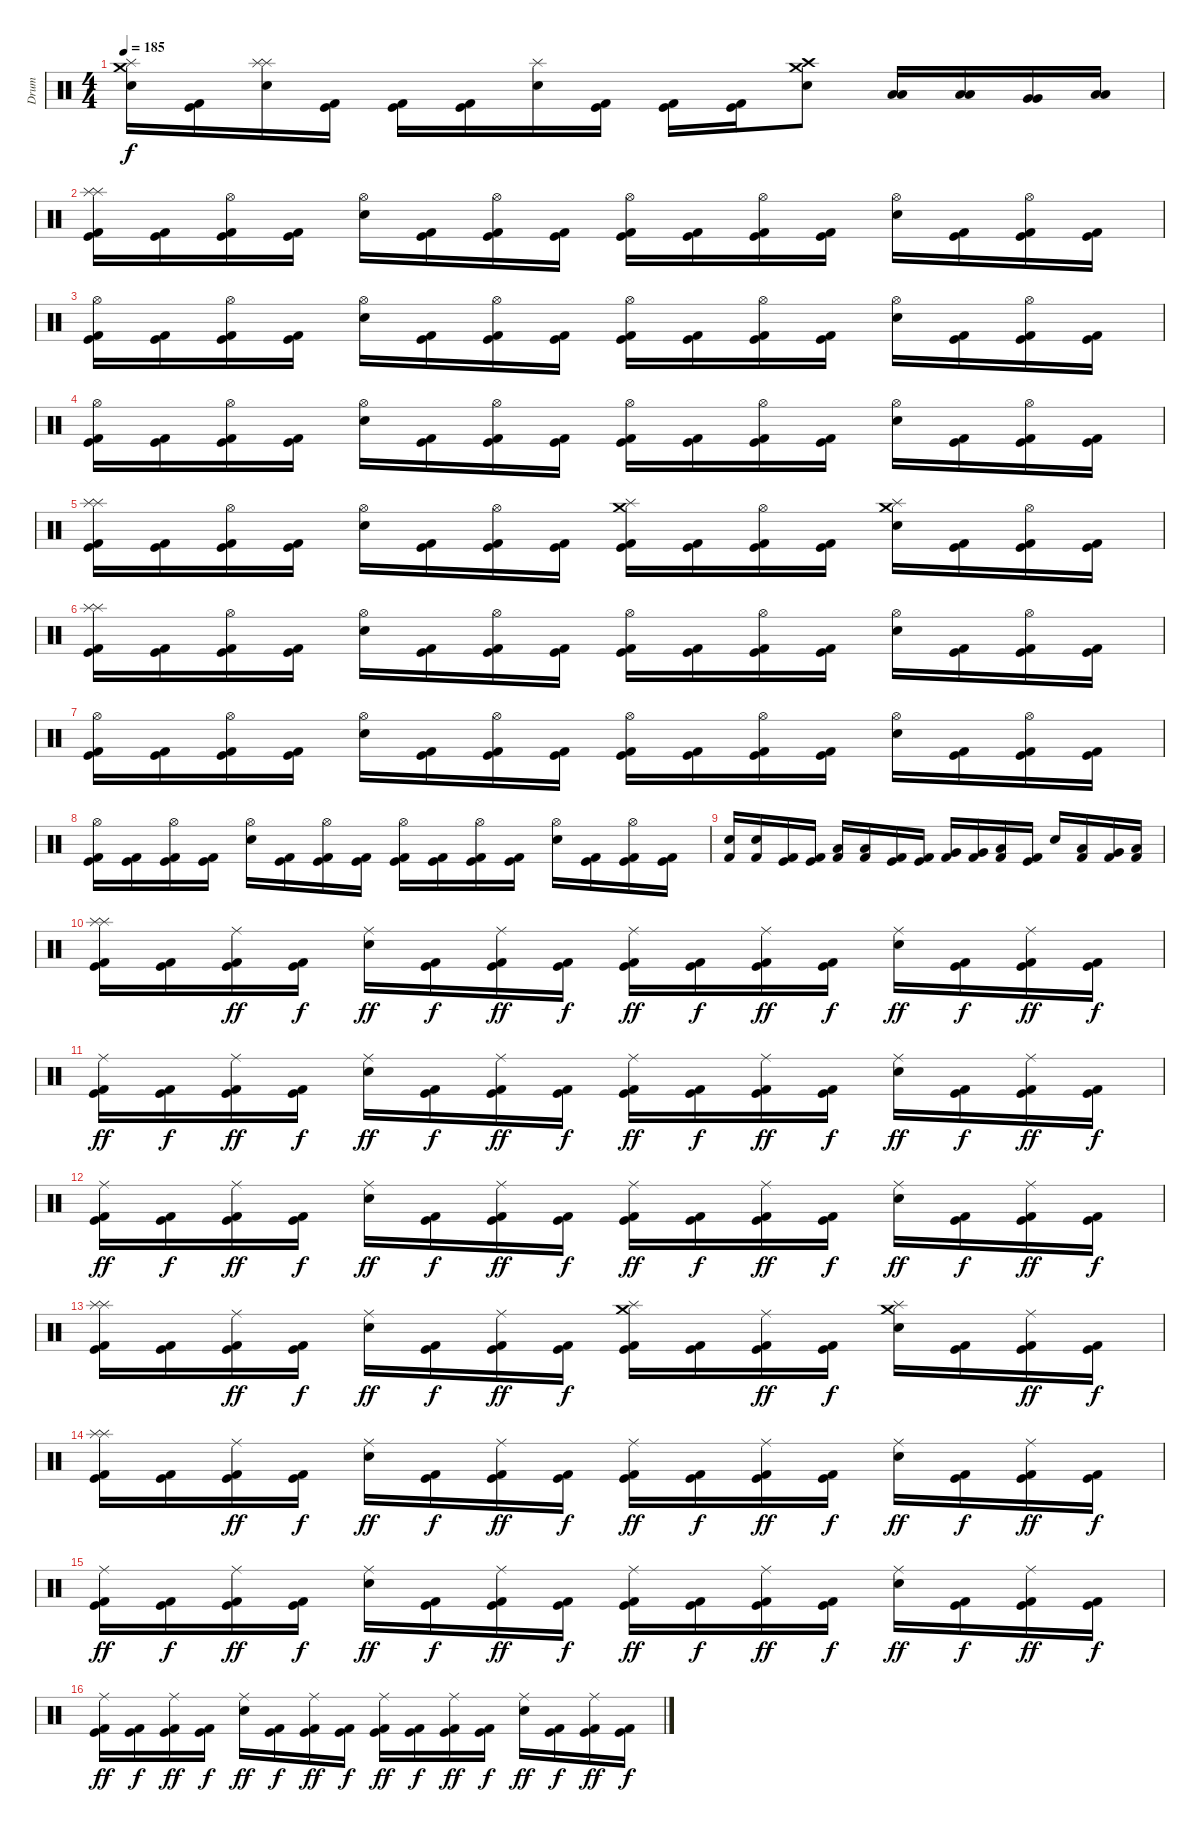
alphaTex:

\track ("Drum" "Drum") {instrument percussion}
\staff {score}
\articulation defaults
\ts (4 4)
\tempo 185
\clef neutral
\ks c
("Crash medium (hit)" "Splash (hit)" "Snare (hit) 2").16{dy f} ("Kick (hit)" "Kick (hit) 2").16 ("Splash (hit)" "Splash (hit)" "Snare (hit) 2").16 ("Kick (hit)" "Kick (hit) 2").16 ("Kick (hit)" "Kick (hit) 2").16 ("Kick (hit)" "Kick (hit) 2").16 ("Splash (hit)" "Snare (hit) 2").16 ("Kick (hit)" "Kick (hit) 2").16 ("Kick (hit)" "Kick (hit) 2").16 ("Kick (hit)" "Kick (hit) 2").16 ("Crash high (hit)" "Crash medium (hit)" "Snare (hit) 2").8 ("Low Tom (hit)" "Low Tom (hit)").16 ("Low Tom (hit)" "Low Tom (hit)").16 ("Very Low Tom (hit)" "Very Low Tom (hit)").16 ("Low Floor Tom (hit)" "Low Floor Tom (hit)").16 |
("Splash (hit)" "Splash (hit)" "Kick (hit)" "Kick (hit) 2").16 ("Kick (hit)" "Kick (hit) 2").16 ("Hi-Hat (open)" "Kick (hit)" "Kick (hit) 2").16 ("Kick (hit)" "Kick (hit) 2").16 ("Hi-Hat (open)" "Snare (hit) 2").16 ("Kick (hit)" "Kick (hit) 2").16 ("Hi-Hat (open)" "Kick (hit)" "Kick (hit) 2").16 ("Kick (hit)" "Kick (hit) 2").16 ("Hi-Hat (open)" "Kick (hit)" "Kick (hit) 2").16 ("Kick (hit)" "Kick (hit) 2").16 ("Hi-Hat (open)" "Kick (hit)" "Kick (hit) 2").16 ("Kick (hit)" "Kick (hit) 2").16 ("Hi-Hat (open)" "Snare (hit) 2").16 ("Kick (hit)" "Kick (hit) 2").16 ("Hi-Hat (open)" "Kick (hit)" "Kick (hit) 2").16 ("Kick (hit)" "Kick (hit) 2").16 |
("Hi-Hat (open)" "Kick (hit)" "Kick (hit) 2").16 ("Kick (hit)" "Kick (hit) 2").16 ("Hi-Hat (open)" "Kick (hit)" "Kick (hit) 2").16 ("Kick (hit)" "Kick (hit) 2").16 ("Hi-Hat (open)" "Snare (hit) 2").16 ("Kick (hit)" "Kick (hit) 2").16 ("Hi-Hat (open)" "Kick (hit)" "Kick (hit) 2").16 ("Kick (hit)" "Kick (hit) 2").16 ("Hi-Hat (open)" "Kick (hit)" "Kick (hit) 2").16 ("Kick (hit)" "Kick (hit) 2").16 ("Hi-Hat (open)" "Kick (hit)" "Kick (hit) 2").16 ("Kick (hit)" "Kick (hit) 2").16 ("Hi-Hat (open)" "Snare (hit) 2").16 ("Kick (hit)" "Kick (hit) 2").16 ("Hi-Hat (open)" "Kick (hit)" "Kick (hit) 2").16 ("Kick (hit)" "Kick (hit) 2").16 |
("Hi-Hat (open)" "Kick (hit)" "Kick (hit) 2").16 ("Kick (hit)" "Kick (hit) 2").16 ("Hi-Hat (open)" "Kick (hit)" "Kick (hit) 2").16 ("Kick (hit)" "Kick (hit) 2").16 ("Hi-Hat (open)" "Snare (hit) 2").16 ("Kick (hit)" "Kick (hit) 2").16 ("Hi-Hat (open)" "Kick (hit)" "Kick (hit) 2").16 ("Kick (hit)" "Kick (hit) 2").16 ("Hi-Hat (open)" "Kick (hit)" "Kick (hit) 2").16 ("Kick (hit)" "Kick (hit) 2").16 ("Hi-Hat (open)" "Kick (hit)" "Kick (hit) 2").16 ("Kick (hit)" "Kick (hit) 2").16 ("Hi-Hat (open)" "Snare (hit) 2").16 ("Kick (hit)" "Kick (hit) 2").16 ("Hi-Hat (open)" "Kick (hit)" "Kick (hit) 2").16 ("Kick (hit)" "Kick (hit) 2").16 |
("Splash (hit)" "Splash (hit)" "Kick (hit)" "Kick (hit) 2").16 ("Kick (hit)" "Kick (hit) 2").16 ("Hi-Hat (open)" "Kick (hit)" "Kick (hit) 2").16 ("Kick (hit)" "Kick (hit) 2").16 ("Hi-Hat (open)" "Snare (hit) 2").16 ("Kick (hit)" "Kick (hit) 2").16 ("Hi-Hat (open)" "Kick (hit)" "Kick (hit) 2").16 ("Kick (hit)" "Kick (hit) 2").16 ("Crash medium (hit)" "Splash (hit)" "Kick (hit)" "Kick (hit) 2").16 ("Kick (hit)" "Kick (hit) 2").16 ("Hi-Hat (open)" "Kick (hit)" "Kick (hit) 2").16 ("Kick (hit)" "Kick (hit) 2").16 ("Crash medium (hit)" "Splash (hit)" "Snare (hit) 2").16 ("Kick (hit)" "Kick (hit) 2").16 ("Hi-Hat (open)" "Kick (hit)" "Kick (hit) 2").16 ("Kick (hit)" "Kick (hit) 2").16 |
("Splash (hit)" "Splash (hit)" "Kick (hit)" "Kick (hit) 2").16 ("Kick (hit)" "Kick (hit) 2").16 ("Hi-Hat (open)" "Kick (hit)" "Kick (hit) 2").16 ("Kick (hit)" "Kick (hit) 2").16 ("Hi-Hat (open)" "Snare (hit) 2").16 ("Kick (hit)" "Kick (hit) 2").16 ("Hi-Hat (open)" "Kick (hit)" "Kick (hit) 2").16 ("Kick (hit)" "Kick (hit) 2").16 ("Hi-Hat (open)" "Kick (hit)" "Kick (hit) 2").16 ("Kick (hit)" "Kick (hit) 2").16 ("Hi-Hat (open)" "Kick (hit)" "Kick (hit) 2").16 ("Kick (hit)" "Kick (hit) 2").16 ("Hi-Hat (open)" "Snare (hit) 2").16 ("Kick (hit)" "Kick (hit) 2").16 ("Hi-Hat (open)" "Kick (hit)" "Kick (hit) 2").16 ("Kick (hit)" "Kick (hit) 2").16 |
("Hi-Hat (open)" "Kick (hit)" "Kick (hit) 2").16 ("Kick (hit)" "Kick (hit) 2").16 ("Hi-Hat (open)" "Kick (hit)" "Kick (hit) 2").16 ("Kick (hit)" "Kick (hit) 2").16 ("Hi-Hat (open)" "Snare (hit) 2").16 ("Kick (hit)" "Kick (hit) 2").16 ("Hi-Hat (open)" "Kick (hit)" "Kick (hit) 2").16 ("Kick (hit)" "Kick (hit) 2").16 ("Hi-Hat (open)" "Kick (hit)" "Kick (hit) 2").16 ("Kick (hit)" "Kick (hit) 2").16 ("Hi-Hat (open)" "Kick (hit)" "Kick (hit) 2").16 ("Kick (hit)" "Kick (hit) 2").16 ("Hi-Hat (open)" "Snare (hit) 2").16 ("Kick (hit)" "Kick (hit) 2").16 ("Hi-Hat (open)" "Kick (hit)" "Kick (hit) 2").16 ("Kick (hit)" "Kick (hit) 2").16 |
("Hi-Hat (open)" "Kick (hit)" "Kick (hit) 2").16 ("Kick (hit)" "Kick (hit) 2").16 ("Hi-Hat (open)" "Kick (hit)" "Kick (hit) 2").16 ("Kick (hit)" "Kick (hit) 2").16 ("Hi-Hat (open)" "Snare (hit) 2").16 ("Kick (hit)" "Kick (hit) 2").16 ("Hi-Hat (open)" "Kick (hit)" "Kick (hit) 2").16 ("Kick (hit)" "Kick (hit) 2").16 ("Hi-Hat (open)" "Kick (hit)" "Kick (hit) 2").16 ("Kick (hit)" "Kick (hit) 2").16 ("Hi-Hat (open)" "Kick (hit)" "Kick (hit) 2").16 ("Kick (hit)" "Kick (hit) 2").16 ("Hi-Hat (open)" "Snare (hit) 2").16 ("Kick (hit)" "Kick (hit) 2").16 ("Hi-Hat (open)" "Kick (hit)" "Kick (hit) 2").16 ("Kick (hit)" "Kick (hit) 2").16 |
("Snare (hit) 2" "Kick (hit) 2").16 ("Snare (hit) 2" "Kick (hit) 2").16 ("Kick (hit)" "Kick (hit) 2").16 ("Kick (hit)" "Kick (hit) 2").16 ("Low Tom (hit)" "Kick (hit) 2").16 ("Low Tom (hit)" "Kick (hit) 2").16 ("Kick (hit)" "Kick (hit) 2").16 ("Kick (hit)" "Kick (hit) 2").16 ("Very Low Tom (hit)" "Kick (hit) 2").16 ("Very Low Tom (hit)" "Kick (hit) 2").16 ("Low Floor Tom (hit)" "Kick (hit) 2").16 ("Kick (hit)" "Kick (hit) 2").16 "Snare (hit) 2".16 ("Low Tom (hit)" "Kick (hit) 2").16 ("Very Low Tom (hit)" "Kick (hit) 2").16 ("Low Floor Tom (hit)" "Kick (hit) 2").16 |
("Splash (hit)" "Splash (hit)" "Kick (hit)" "Kick (hit) 2").16 ("Kick (hit)" "Kick (hit) 2").16 ("Ride (middle)" "Kick (hit)" "Kick (hit) 2").16{dy ff} ("Kick (hit)" "Kick (hit) 2").16{dy f} ("Ride (middle)" "Snare (hit) 2").16{dy ff} ("Kick (hit)" "Kick (hit) 2").16{dy f} ("Ride (middle)" "Kick (hit)" "Kick (hit) 2").16{dy ff} ("Kick (hit)" "Kick (hit) 2").16{dy f} ("Ride (middle)" "Kick (hit)" "Kick (hit) 2").16{dy ff} ("Kick (hit)" "Kick (hit) 2").16{dy f} ("Ride (middle)" "Kick (hit)" "Kick (hit) 2").16{dy ff} ("Kick (hit)" "Kick (hit) 2").16{dy f} ("Ride (middle)" "Snare (hit) 2").16{dy ff} ("Kick (hit)" "Kick (hit) 2").16{dy f} ("Ride (middle)" "Kick (hit)" "Kick (hit) 2").16{dy ff} ("Kick (hit)" "Kick (hit) 2").16{dy f} |
("Ride (middle)" "Kick (hit)" "Kick (hit) 2").16{dy ff} ("Kick (hit)" "Kick (hit) 2").16{dy f} ("Ride (middle)" "Kick (hit)" "Kick (hit) 2").16{dy ff} ("Kick (hit)" "Kick (hit) 2").16{dy f} ("Ride (middle)" "Snare (hit) 2").16{dy ff} ("Kick (hit)" "Kick (hit) 2").16{dy f} ("Ride (middle)" "Kick (hit)" "Kick (hit) 2").16{dy ff} ("Kick (hit)" "Kick (hit) 2").16{dy f} ("Ride (middle)" "Kick (hit)" "Kick (hit) 2").16{dy ff} ("Kick (hit)" "Kick (hit) 2").16{dy f} ("Ride (middle)" "Kick (hit)" "Kick (hit) 2").16{dy ff} ("Kick (hit)" "Kick (hit) 2").16{dy f} ("Ride (middle)" "Snare (hit) 2").16{dy ff} ("Kick (hit)" "Kick (hit) 2").16{dy f} ("Ride (middle)" "Kick (hit)" "Kick (hit) 2").16{dy ff} ("Kick (hit)" "Kick (hit) 2").16{dy f} |
("Ride (middle)" "Kick (hit)" "Kick (hit) 2").16{dy ff} ("Kick (hit)" "Kick (hit) 2").16{dy f} ("Ride (middle)" "Kick (hit)" "Kick (hit) 2").16{dy ff} ("Kick (hit)" "Kick (hit) 2").16{dy f} ("Ride (middle)" "Snare (hit) 2").16{dy ff} ("Kick (hit)" "Kick (hit) 2").16{dy f} ("Ride (middle)" "Kick (hit)" "Kick (hit) 2").16{dy ff} ("Kick (hit)" "Kick (hit) 2").16{dy f} ("Ride (middle)" "Kick (hit)" "Kick (hit) 2").16{dy ff} ("Kick (hit)" "Kick (hit) 2").16{dy f} ("Ride (middle)" "Kick (hit)" "Kick (hit) 2").16{dy ff} ("Kick (hit)" "Kick (hit) 2").16{dy f} ("Ride (middle)" "Snare (hit) 2").16{dy ff} ("Kick (hit)" "Kick (hit) 2").16{dy f} ("Ride (middle)" "Kick (hit)" "Kick (hit) 2").16{dy ff} ("Kick (hit)" "Kick (hit) 2").16{dy f} |
("Splash (hit)" "Splash (hit)" "Kick (hit)" "Kick (hit) 2").16 ("Kick (hit)" "Kick (hit) 2").16 ("Ride (middle)" "Kick (hit)" "Kick (hit) 2").16{dy ff} ("Kick (hit)" "Kick (hit) 2").16{dy f} ("Ride (middle)" "Snare (hit) 2").16{dy ff} ("Kick (hit)" "Kick (hit) 2").16{dy f} ("Ride (middle)" "Kick (hit)" "Kick (hit) 2").16{dy ff} ("Kick (hit)" "Kick (hit) 2").16{dy f} ("Crash medium (hit)" "Splash (hit)" "Kick (hit)" "Kick (hit) 2").16 ("Kick (hit)" "Kick (hit) 2").16 ("Ride (middle)" "Kick (hit)" "Kick (hit) 2").16{dy ff} ("Kick (hit)" "Kick (hit) 2").16{dy f} ("Crash medium (hit)" "Splash (hit)" "Snare (hit) 2").16 ("Kick (hit)" "Kick (hit) 2").16 ("Ride (middle)" "Kick (hit)" "Kick (hit) 2").16{dy ff} ("Kick (hit)" "Kick (hit) 2").16{dy f} |
("Splash (hit)" "Splash (hit)" "Kick (hit)" "Kick (hit) 2").16 ("Kick (hit)" "Kick (hit) 2").16 ("Ride (middle)" "Kick (hit)" "Kick (hit) 2").16{dy ff} ("Kick (hit)" "Kick (hit) 2").16{dy f} ("Ride (middle)" "Snare (hit) 2").16{dy ff} ("Kick (hit)" "Kick (hit) 2").16{dy f} ("Ride (middle)" "Kick (hit)" "Kick (hit) 2").16{dy ff} ("Kick (hit)" "Kick (hit) 2").16{dy f} ("Ride (middle)" "Kick (hit)" "Kick (hit) 2").16{dy ff} ("Kick (hit)" "Kick (hit) 2").16{dy f} ("Ride (middle)" "Kick (hit)" "Kick (hit) 2").16{dy ff} ("Kick (hit)" "Kick (hit) 2").16{dy f} ("Ride (middle)" "Snare (hit) 2").16{dy ff} ("Kick (hit)" "Kick (hit) 2").16{dy f} ("Ride (middle)" "Kick (hit)" "Kick (hit) 2").16{dy ff} ("Kick (hit)" "Kick (hit) 2").16{dy f} |
("Ride (middle)" "Kick (hit)" "Kick (hit) 2").16{dy ff} ("Kick (hit)" "Kick (hit) 2").16{dy f} ("Ride (middle)" "Kick (hit)" "Kick (hit) 2").16{dy ff} ("Kick (hit)" "Kick (hit) 2").16{dy f} ("Ride (middle)" "Snare (hit) 2").16{dy ff} ("Kick (hit)" "Kick (hit) 2").16{dy f} ("Ride (middle)" "Kick (hit)" "Kick (hit) 2").16{dy ff} ("Kick (hit)" "Kick (hit) 2").16{dy f} ("Ride (middle)" "Kick (hit)" "Kick (hit) 2").16{dy ff} ("Kick (hit)" "Kick (hit) 2").16{dy f} ("Ride (middle)" "Kick (hit)" "Kick (hit) 2").16{dy ff} ("Kick (hit)" "Kick (hit) 2").16{dy f} ("Ride (middle)" "Snare (hit) 2").16{dy ff} ("Kick (hit)" "Kick (hit) 2").16{dy f} ("Ride (middle)" "Kick (hit)" "Kick (hit) 2").16{dy ff} ("Kick (hit)" "Kick (hit) 2").16{dy f} |
("Ride (middle)" "Kick (hit)" "Kick (hit) 2").16{dy ff} ("Kick (hit)" "Kick (hit) 2").16{dy f} ("Ride (middle)" "Kick (hit)" "Kick (hit) 2").16{dy ff} ("Kick (hit)" "Kick (hit) 2").16{dy f} ("Ride (middle)" "Snare (hit) 2").16{dy ff} ("Kick (hit)" "Kick (hit) 2").16{dy f} ("Ride (middle)" "Kick (hit)" "Kick (hit) 2").16{dy ff} ("Kick (hit)" "Kick (hit) 2").16{dy f} ("Ride (middle)" "Kick (hit)" "Kick (hit) 2").16{dy ff} ("Kick (hit)" "Kick (hit) 2").16{dy f} ("Ride (middle)" "Kick (hit)" "Kick (hit) 2").16{dy ff} ("Kick (hit)" "Kick (hit) 2").16{dy f} ("Ride (middle)" "Snare (hit) 2").16{dy ff} ("Kick (hit)" "Kick (hit) 2").16{dy f} ("Ride (middle)" "Kick (hit)" "Kick (hit) 2").16{dy ff} ("Kick (hit)" "Kick (hit) 2").16{dy f}
